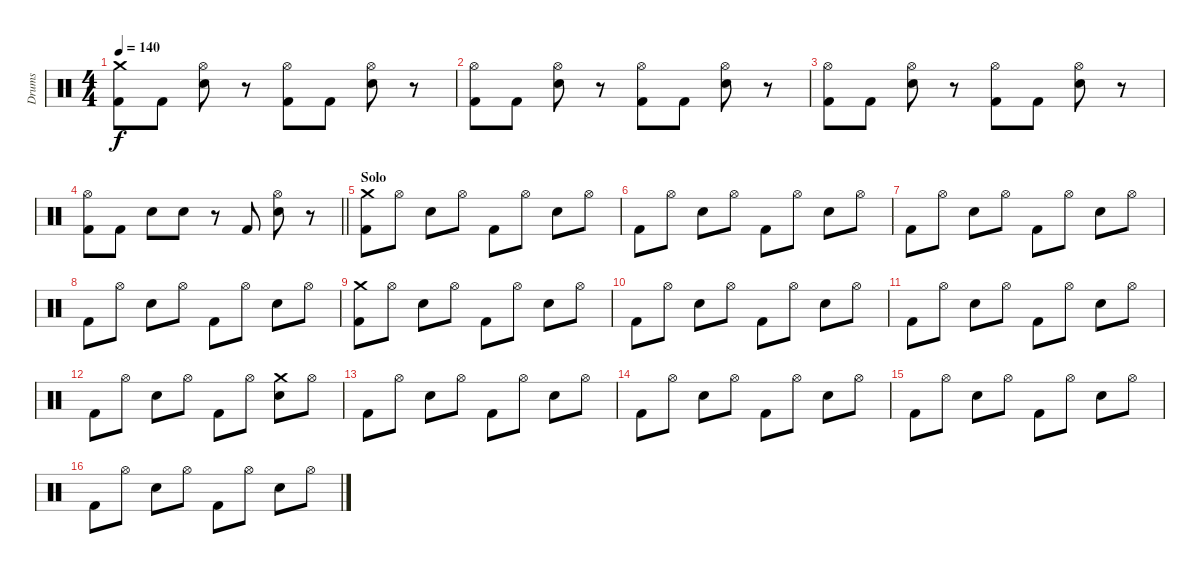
\track ("Drums" "Drums") {instrument percussion}
\staff {score}
\articulation defaults
\ts (4 4)
\tempo 140
\clef neutral
\ks c
("Crash medium (hit)" "Kick (hit) 2").8{dy f} "Kick (hit) 2".8 ("Hi-Hat (open)" "Electric Snare (hit)").8 r.8 ("Hi-Hat (open)" "Kick (hit) 2").8 "Kick (hit) 2".8 ("Hi-Hat (open)" "Electric Snare (hit)").8 r.8 |
("Hi-Hat (open)" "Kick (hit) 2").8 "Kick (hit) 2".8 ("Hi-Hat (open)" "Electric Snare (hit)").8 r.8 ("Hi-Hat (open)" "Kick (hit) 2").8 "Kick (hit) 2".8 ("Hi-Hat (open)" "Electric Snare (hit)").8 r.8 |
("Hi-Hat (open)" "Kick (hit) 2").8 "Kick (hit) 2".8 ("Hi-Hat (open)" "Electric Snare (hit)").8 r.8 ("Hi-Hat (open)" "Kick (hit) 2").8 "Kick (hit) 2".8 ("Hi-Hat (open)" "Electric Snare (hit)").8 r.8 |
\barLineRight lightlight
("Hi-Hat (open)" "Kick (hit) 2").8 "Kick (hit) 2".8 "Electric Snare (hit)".8 "Electric Snare (hit)".8 r.8 "Kick (hit) 2".8 ("Hi-Hat (open)" "Electric Snare (hit)").8 r.8 |
\section ("" "Solo")
("Crash medium (hit)" "Kick (hit) 2").8 "Hi-Hat (open)".8 "Electric Snare (hit)".8 "Hi-Hat (open)".8 "Kick (hit) 2".8 "Hi-Hat (open)".8 "Electric Snare (hit)".8 "Hi-Hat (open)".8 |
"Kick (hit) 2".8 "Hi-Hat (open)".8 "Electric Snare (hit)".8 "Hi-Hat (open)".8 "Kick (hit) 2".8 "Hi-Hat (open)".8 "Electric Snare (hit)".8 "Hi-Hat (open)".8 |
"Kick (hit) 2".8 "Hi-Hat (open)".8 "Electric Snare (hit)".8 "Hi-Hat (open)".8 "Kick (hit) 2".8 "Hi-Hat (open)".8 "Electric Snare (hit)".8 "Hi-Hat (open)".8 |
"Kick (hit) 2".8 "Hi-Hat (open)".8 "Electric Snare (hit)".8 "Hi-Hat (open)".8 "Kick (hit) 2".8 "Hi-Hat (open)".8 "Electric Snare (hit)".8 "Hi-Hat (open)".8 |
("Crash medium (hit)" "Kick (hit) 2").8 "Hi-Hat (open)".8 "Electric Snare (hit)".8 "Hi-Hat (open)".8 "Kick (hit) 2".8 "Hi-Hat (open)".8 "Electric Snare (hit)".8 "Hi-Hat (open)".8 |
"Kick (hit) 2".8 "Hi-Hat (open)".8 "Electric Snare (hit)".8 "Hi-Hat (open)".8 "Kick (hit) 2".8 "Hi-Hat (open)".8 "Electric Snare (hit)".8 "Hi-Hat (open)".8 |
"Kick (hit) 2".8 "Hi-Hat (open)".8 "Electric Snare (hit)".8 "Hi-Hat (open)".8 "Kick (hit) 2".8 "Hi-Hat (open)".8 "Electric Snare (hit)".8 "Hi-Hat (open)".8 |
"Kick (hit) 2".8 "Hi-Hat (open)".8 "Electric Snare (hit)".8 "Hi-Hat (open)".8 "Kick (hit) 2".8 "Hi-Hat (open)".8 ("Crash medium (hit)" "Electric Snare (hit)").8 "Hi-Hat (open)".8 |
"Kick (hit) 2".8 "Hi-Hat (open)".8 "Electric Snare (hit)".8 "Hi-Hat (open)".8 "Kick (hit) 2".8 "Hi-Hat (open)".8 "Electric Snare (hit)".8 "Hi-Hat (open)".8 |
"Kick (hit) 2".8 "Hi-Hat (open)".8 "Electric Snare (hit)".8 "Hi-Hat (open)".8 "Kick (hit) 2".8 "Hi-Hat (open)".8 "Electric Snare (hit)".8 "Hi-Hat (open)".8 |
"Kick (hit) 2".8 "Hi-Hat (open)".8 "Electric Snare (hit)".8 "Hi-Hat (open)".8 "Kick (hit) 2".8 "Hi-Hat (open)".8 "Electric Snare (hit)".8 "Hi-Hat (open)".8 |
"Kick (hit) 2".8 "Hi-Hat (open)".8 "Electric Snare (hit)".8 "Hi-Hat (open)".8 "Kick (hit) 2".8 "Hi-Hat (open)".8 "Electric Snare (hit)".8 "Hi-Hat (open)".8
